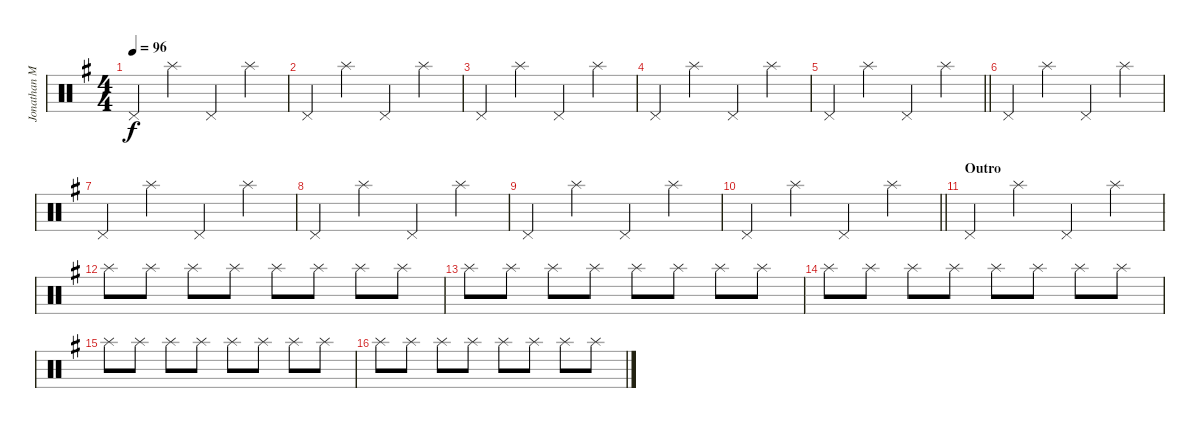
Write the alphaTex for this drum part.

\track ("Jonathan Mover (Drums)" "Jonathan M") {instrument percussion}
\staff {score}
\articulation defaults
\ts (4 4)
\tempo 96
\clef neutral
\ks g "Pedal Hi-Hat (hit)".4{dy f} "Splash (hit)".4 "Pedal Hi-Hat (hit)".4 "Splash (hit)".4
|
"Pedal Hi-Hat (hit)".4 "Splash (hit)".4 "Pedal Hi-Hat (hit)".4 "Splash (hit)".4 |
"Pedal Hi-Hat (hit)".4 "Splash (hit)".4 "Pedal Hi-Hat (hit)".4 "Splash (hit)".4 |
"Pedal Hi-Hat (hit)".4 "Splash (hit)".4 "Pedal Hi-Hat (hit)".4 "Splash (hit)".4 |
\barLineRight lightlight "Pedal Hi-Hat (hit)".4 "Splash (hit)".4 "Pedal Hi-Hat (hit)".4 "Splash (hit)".4
|
"Pedal Hi-Hat (hit)".4 "Splash (hit)".4 "Pedal Hi-Hat (hit)".4 "Splash (hit)".4 |
"Pedal Hi-Hat (hit)".4 "Splash (hit)".4 "Pedal Hi-Hat (hit)".4 "Splash (hit)".4 |
"Pedal Hi-Hat (hit)".4 "Splash (hit)".4 "Pedal Hi-Hat (hit)".4 "Splash (hit)".4 |
"Pedal Hi-Hat (hit)".4 "Splash (hit)".4 "Pedal Hi-Hat (hit)".4 "Splash (hit)".4 |
\barLineRight lightlight "Pedal Hi-Hat (hit)".4 "Splash (hit)".4 "Pedal Hi-Hat (hit)".4 "Splash (hit)".4
|
\section ("" "Outro")
"Pedal Hi-Hat (hit)".4 "Splash (hit)".4 "Pedal Hi-Hat (hit)".4 "Splash (hit)".4 |
"Splash (hit)".8 "Splash (hit)".8 "Splash (hit)".8 "Splash (hit)".8 "Splash (hit)".8 "Splash (hit)".8 "Splash (hit)".8 "Splash (hit)".8 |
"Splash (hit)".8 "Splash (hit)".8 "Splash (hit)".8 "Splash (hit)".8 "Splash (hit)".8 "Splash (hit)".8 "Splash (hit)".8 "Splash (hit)".8 |
"Splash (hit)".8 "Splash (hit)".8 "Splash (hit)".8 "Splash (hit)".8 "Splash (hit)".8 "Splash (hit)".8 "Splash (hit)".8 "Splash (hit)".8 |
"Splash (hit)".8 "Splash (hit)".8 "Splash (hit)".8 "Splash (hit)".8 "Splash (hit)".8 "Splash (hit)".8 "Splash (hit)".8 "Splash (hit)".8 |
"Splash (hit)".8 "Splash (hit)".8 "Splash (hit)".8 "Splash (hit)".8 "Splash (hit)".8 "Splash (hit)".8 "Splash (hit)".8 "Splash (hit)".8
